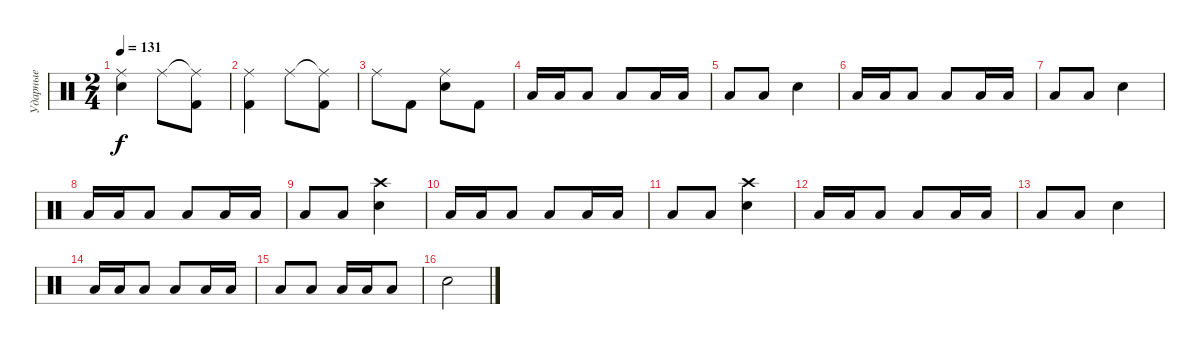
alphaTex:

\track ("Ударные" "Ударные") {instrument percussion}
\staff {score}
\articulation defaults
\ts (2 4)
\tempo 131
\clef neutral
\ks c
("Ride (middle)" "Electric Snare (hit)").4{dy f} "Ride (middle)".8 ("Ride (middle)"{t} "Kick (hit) 2").8 |
("Ride (middle)" "Kick (hit) 2").4 "Ride (middle)".8 ("Ride (middle)"{t} "Kick (hit) 2").8 |
"Ride (middle)".8 "Kick (hit) 2".8 ("Ride (middle)" "Electric Snare (hit)").8 "Kick (hit) 2".8 |
"Low Tom (hit)".16 "Low Tom (hit)".16 "Low Tom (hit)".8 "Low Tom (hit)".8 "Low Tom (hit)".16 "Low Tom (hit)".16 |
"Low Tom (hit)".8 "Low Tom (hit)".8 "Electric Snare (hit)".4 |
"Low Tom (hit)".16 "Low Tom (hit)".16 "Low Tom (hit)".8 "Low Tom (hit)".8 "Low Tom (hit)".16 "Low Tom (hit)".16 |
"Low Tom (hit)".8 "Low Tom (hit)".8 "Electric Snare (hit)".4 |
"Low Tom (hit)".16 "Low Tom (hit)".16 "Low Tom (hit)".8 "Low Tom (hit)".8 "Low Tom (hit)".16 "Low Tom (hit)".16 |
"Low Tom (hit)".8 "Low Tom (hit)".8 ("Crash high (hit)" "Electric Snare (hit)").4 |
"Low Tom (hit)".16 "Low Tom (hit)".16 "Low Tom (hit)".8 "Low Tom (hit)".8 "Low Tom (hit)".16 "Low Tom (hit)".16 |
"Low Tom (hit)".8 "Low Tom (hit)".8 ("Crash high (hit)" "Electric Snare (hit)").4 |
"Low Tom (hit)".16 "Low Tom (hit)".16 "Low Tom (hit)".8 "Low Tom (hit)".8 "Low Tom (hit)".16 "Low Tom (hit)".16 |
"Low Tom (hit)".8 "Low Tom (hit)".8 "Electric Snare (hit)".4 |
"Low Tom (hit)".16 "Low Tom (hit)".16 "Low Tom (hit)".8 "Low Tom (hit)".8 "Low Tom (hit)".16 "Low Tom (hit)".16 |
"Low Tom (hit)".8 "Low Tom (hit)".8 "Low Tom (hit)".16 "Low Tom (hit)".16 "Low Tom (hit)".8 |
"Electric Snare (hit)".2
